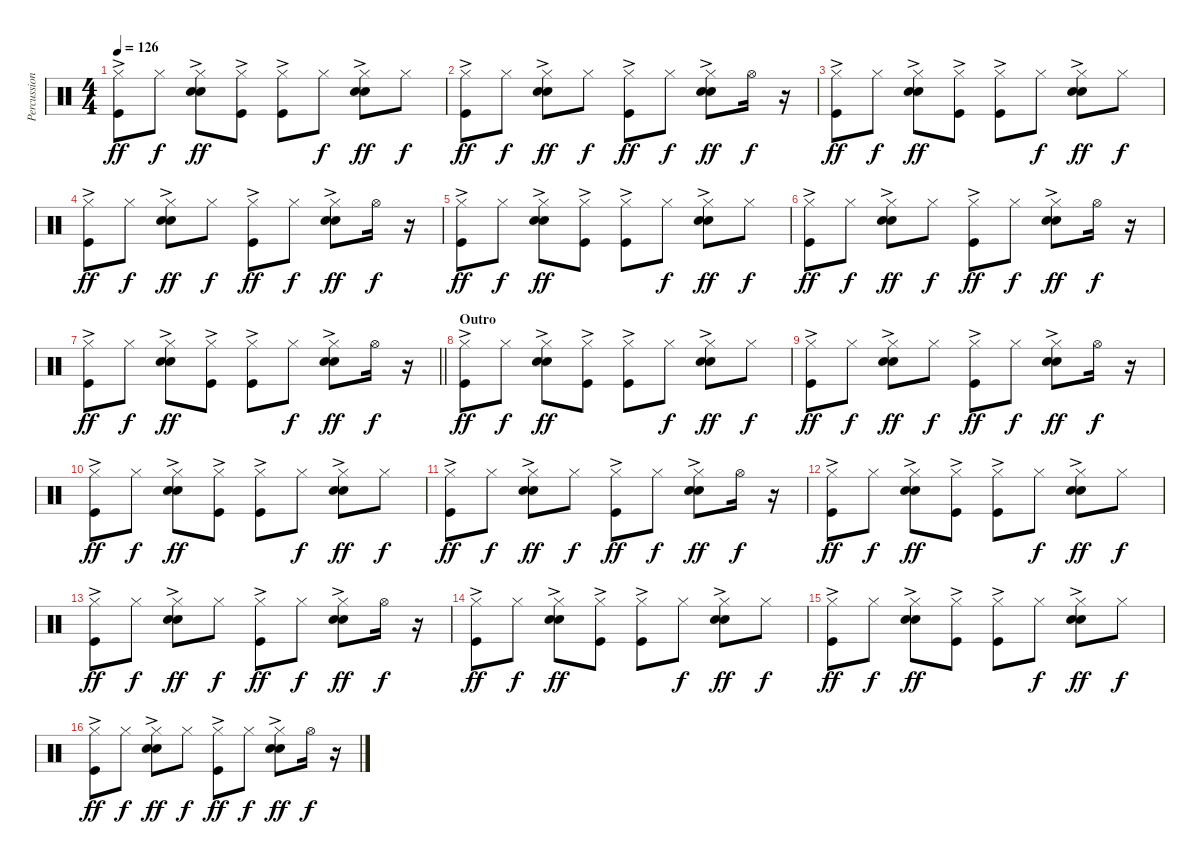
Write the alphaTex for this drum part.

\track ("Percussion" "Percussion") {instrument percussion}
\staff {score}
\articulation defaults
\ts (4 4)
\tempo 126
\clef neutral
\ks c
("Hi-Hat (closed)" "Kick (hit)"{ac}).8{dy ff} "Hi-Hat (closed)".8{dy f} ("Hi-Hat (closed)" "Hand Clap (hit)"{ac} "Snare (hit) 2"{ac}).8{dy ff} ("Hi-Hat (closed)" "Kick (hit)"{ac}).8 ("Hi-Hat (closed)" "Kick (hit)"{ac}).8 "Hi-Hat (closed)".8{dy f} ("Hi-Hat (closed)" "Hand Clap (hit)"{ac} "Snare (hit) 2"{ac}).8{dy ff} "Hi-Hat (closed)".8{dy f} |
("Hi-Hat (closed)" "Kick (hit)"{ac}).8{dy ff} "Hi-Hat (closed)".8{dy f} ("Hi-Hat (closed)" "Hand Clap (hit)"{ac} "Snare (hit) 2"{ac}).8{dy ff} "Hi-Hat (closed)".8{dy f} ("Hi-Hat (closed)" "Kick (hit)"{ac}).8{dy ff} "Hi-Hat (closed)".8{dy f} ("Hi-Hat (closed)" "Hand Clap (hit)"{ac} "Snare (hit) 2"{ac}).8{dy ff} "Hi-Hat (open)".16{dy f} r.16 |
("Hi-Hat (closed)" "Kick (hit)"{ac}).8{dy ff} "Hi-Hat (closed)".8{dy f} ("Hi-Hat (closed)" "Hand Clap (hit)"{ac} "Snare (hit) 2"{ac}).8{dy ff} ("Hi-Hat (closed)" "Kick (hit)"{ac}).8 ("Hi-Hat (closed)" "Kick (hit)"{ac}).8 "Hi-Hat (closed)".8{dy f} ("Hi-Hat (closed)" "Hand Clap (hit)"{ac} "Snare (hit) 2"{ac}).8{dy ff} "Hi-Hat (closed)".8{dy f} |
("Hi-Hat (closed)" "Kick (hit)"{ac}).8{dy ff} "Hi-Hat (closed)".8{dy f} ("Hi-Hat (closed)" "Hand Clap (hit)"{ac} "Snare (hit) 2"{ac}).8{dy ff} "Hi-Hat (closed)".8{dy f} ("Hi-Hat (closed)" "Kick (hit)"{ac}).8{dy ff} "Hi-Hat (closed)".8{dy f} ("Hi-Hat (closed)" "Hand Clap (hit)"{ac} "Snare (hit) 2"{ac}).8{dy ff} "Hi-Hat (open)".16{dy f} r.16 |
("Hi-Hat (closed)" "Kick (hit)"{ac}).8{dy ff} "Hi-Hat (closed)".8{dy f} ("Hi-Hat (closed)" "Hand Clap (hit)"{ac} "Snare (hit) 2"{ac}).8{dy ff} ("Hi-Hat (closed)" "Kick (hit)"{ac}).8 ("Hi-Hat (closed)" "Kick (hit)"{ac}).8 "Hi-Hat (closed)".8{dy f} ("Hi-Hat (closed)" "Hand Clap (hit)"{ac} "Snare (hit) 2"{ac}).8{dy ff} "Hi-Hat (closed)".8{dy f} |
("Hi-Hat (closed)" "Kick (hit)"{ac}).8{dy ff} "Hi-Hat (closed)".8{dy f} ("Hi-Hat (closed)" "Hand Clap (hit)"{ac} "Snare (hit) 2"{ac}).8{dy ff} "Hi-Hat (closed)".8{dy f} ("Hi-Hat (closed)" "Kick (hit)"{ac}).8{dy ff} "Hi-Hat (closed)".8{dy f} ("Hi-Hat (closed)" "Hand Clap (hit)"{ac} "Snare (hit) 2"{ac}).8{dy ff} "Hi-Hat (open)".16{dy f} r.16 |
\barLineRight lightlight
("Hi-Hat (closed)" "Kick (hit)"{ac}).8{dy ff} "Hi-Hat (closed)".8{dy f} ("Hi-Hat (closed)" "Hand Clap (hit)"{ac} "Snare (hit) 2"{ac}).8{dy ff} ("Hi-Hat (closed)" "Kick (hit)"{ac}).8 ("Hi-Hat (closed)" "Kick (hit)"{ac}).8 "Hi-Hat (closed)".8{dy f} ("Hi-Hat (closed)" "Hand Clap (hit)"{ac} "Snare (hit) 2"{ac}).8{dy ff} "Hi-Hat (open)".16{dy f} r.16 |
\section ("" "Outro")
("Hi-Hat (closed)" "Kick (hit)"{ac}).8{dy ff} "Hi-Hat (closed)".8{dy f} ("Hi-Hat (closed)" "Hand Clap (hit)"{ac} "Snare (hit) 2"{ac}).8{dy ff} ("Hi-Hat (closed)" "Kick (hit)"{ac}).8 ("Hi-Hat (closed)" "Kick (hit)"{ac}).8 "Hi-Hat (closed)".8{dy f} ("Hi-Hat (closed)" "Hand Clap (hit)"{ac} "Snare (hit) 2"{ac}).8{dy ff} "Hi-Hat (closed)".8{dy f} |
("Hi-Hat (closed)" "Kick (hit)"{ac}).8{dy ff} "Hi-Hat (closed)".8{dy f} ("Hi-Hat (closed)" "Hand Clap (hit)"{ac} "Snare (hit) 2"{ac}).8{dy ff} "Hi-Hat (closed)".8{dy f} ("Hi-Hat (closed)" "Kick (hit)"{ac}).8{dy ff} "Hi-Hat (closed)".8{dy f} ("Hi-Hat (closed)" "Hand Clap (hit)"{ac} "Snare (hit) 2"{ac}).8{dy ff} "Hi-Hat (open)".16{dy f} r.16 |
("Hi-Hat (closed)" "Kick (hit)"{ac}).8{dy ff} "Hi-Hat (closed)".8{dy f} ("Hi-Hat (closed)" "Hand Clap (hit)"{ac} "Snare (hit) 2"{ac}).8{dy ff} ("Hi-Hat (closed)" "Kick (hit)"{ac}).8 ("Hi-Hat (closed)" "Kick (hit)"{ac}).8 "Hi-Hat (closed)".8{dy f} ("Hi-Hat (closed)" "Hand Clap (hit)"{ac} "Snare (hit) 2"{ac}).8{dy ff} "Hi-Hat (closed)".8{dy f} |
("Hi-Hat (closed)" "Kick (hit)"{ac}).8{dy ff} "Hi-Hat (closed)".8{dy f} ("Hi-Hat (closed)" "Hand Clap (hit)"{ac} "Snare (hit) 2"{ac}).8{dy ff} "Hi-Hat (closed)".8{dy f} ("Hi-Hat (closed)" "Kick (hit)"{ac}).8{dy ff} "Hi-Hat (closed)".8{dy f} ("Hi-Hat (closed)" "Hand Clap (hit)"{ac} "Snare (hit) 2"{ac}).8{dy ff} "Hi-Hat (open)".16{dy f} r.16 |
("Hi-Hat (closed)" "Kick (hit)"{ac}).8{dy ff} "Hi-Hat (closed)".8{dy f} ("Hi-Hat (closed)" "Hand Clap (hit)"{ac} "Snare (hit) 2"{ac}).8{dy ff} ("Hi-Hat (closed)" "Kick (hit)"{ac}).8 ("Hi-Hat (closed)" "Kick (hit)"{ac}).8 "Hi-Hat (closed)".8{dy f} ("Hi-Hat (closed)" "Hand Clap (hit)"{ac} "Snare (hit) 2"{ac}).8{dy ff} "Hi-Hat (closed)".8{dy f} |
("Hi-Hat (closed)" "Kick (hit)"{ac}).8{dy ff} "Hi-Hat (closed)".8{dy f} ("Hi-Hat (closed)" "Hand Clap (hit)"{ac} "Snare (hit) 2"{ac}).8{dy ff} "Hi-Hat (closed)".8{dy f} ("Hi-Hat (closed)" "Kick (hit)"{ac}).8{dy ff} "Hi-Hat (closed)".8{dy f} ("Hi-Hat (closed)" "Hand Clap (hit)"{ac} "Snare (hit) 2"{ac}).8{dy ff} "Hi-Hat (open)".16{dy f} r.16 |
("Hi-Hat (closed)" "Kick (hit)"{ac}).8{dy ff} "Hi-Hat (closed)".8{dy f} ("Hi-Hat (closed)" "Hand Clap (hit)"{ac} "Snare (hit) 2"{ac}).8{dy ff} ("Hi-Hat (closed)" "Kick (hit)"{ac}).8 ("Hi-Hat (closed)" "Kick (hit)"{ac}).8 "Hi-Hat (closed)".8{dy f} ("Hi-Hat (closed)" "Hand Clap (hit)"{ac} "Snare (hit) 2"{ac}).8{dy ff} "Hi-Hat (closed)".8{dy f} |
("Hi-Hat (closed)" "Kick (hit)"{ac}).8{dy ff} "Hi-Hat (closed)".8{dy f} ("Hi-Hat (closed)" "Hand Clap (hit)"{ac} "Snare (hit) 2"{ac}).8{dy ff} ("Hi-Hat (closed)" "Kick (hit)"{ac}).8 ("Hi-Hat (closed)" "Kick (hit)"{ac}).8 "Hi-Hat (closed)".8{dy f} ("Hi-Hat (closed)" "Hand Clap (hit)"{ac} "Snare (hit) 2"{ac}).8{dy ff} "Hi-Hat (closed)".8{dy f} |
("Hi-Hat (closed)" "Kick (hit)"{ac}).8{dy ff} "Hi-Hat (closed)".8{dy f} ("Hi-Hat (closed)" "Hand Clap (hit)"{ac} "Snare (hit) 2"{ac}).8{dy ff} "Hi-Hat (closed)".8{dy f} ("Hi-Hat (closed)" "Kick (hit)"{ac}).8{dy ff} "Hi-Hat (closed)".8{dy f} ("Hi-Hat (closed)" "Hand Clap (hit)"{ac} "Snare (hit) 2"{ac}).8{dy ff} "Hi-Hat (open)".16{dy f} r.16
